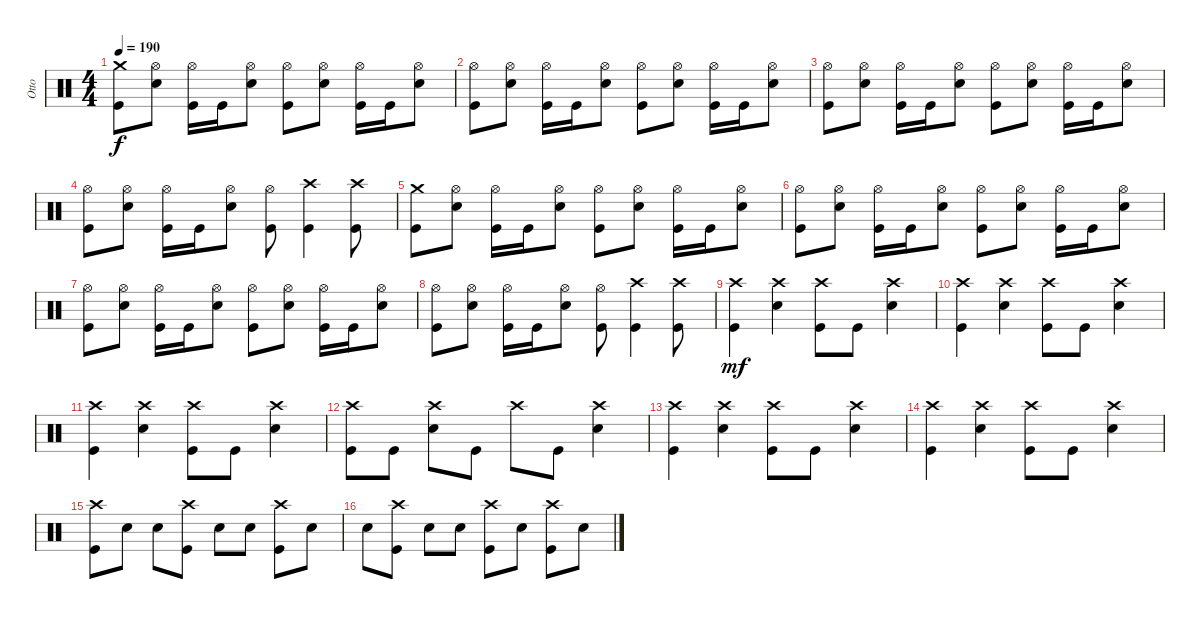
\track ("Otto" "Otto") {instrument percussion}
\staff {score}
\articulation defaults
\ts (4 4)
\tempo 190
\clef neutral
\ks c
("Crash medium (hit)" "Kick (hit)").8{dy f} ("Hi-Hat (open)" "Snare (hit) 2").8 ("Hi-Hat (open)" "Kick (hit)").16 "Kick (hit)".16 ("Hi-Hat (open)" "Snare (hit) 2").8 ("Hi-Hat (open)" "Kick (hit)").8 ("Hi-Hat (open)" "Snare (hit) 2").8 ("Hi-Hat (open)" "Kick (hit)").16 "Kick (hit)".16 ("Hi-Hat (open)" "Snare (hit) 2").8 |
("Hi-Hat (open)" "Kick (hit)").8 ("Hi-Hat (open)" "Snare (hit) 2").8 ("Hi-Hat (open)" "Kick (hit)").16 "Kick (hit)".16 ("Hi-Hat (open)" "Snare (hit) 2").8 ("Hi-Hat (open)" "Kick (hit)").8 ("Hi-Hat (open)" "Snare (hit) 2").8 ("Hi-Hat (open)" "Kick (hit)").16 "Kick (hit)".16 ("Hi-Hat (open)" "Snare (hit) 2").8 |
("Hi-Hat (open)" "Kick (hit)").8 ("Hi-Hat (open)" "Snare (hit) 2").8 ("Hi-Hat (open)" "Kick (hit)").16 "Kick (hit)".16 ("Hi-Hat (open)" "Snare (hit) 2").8 ("Hi-Hat (open)" "Kick (hit)").8 ("Hi-Hat (open)" "Snare (hit) 2").8 ("Hi-Hat (open)" "Kick (hit)").16 "Kick (hit)".16 ("Hi-Hat (open)" "Snare (hit) 2").8 |
("Hi-Hat (open)" "Kick (hit)").8 ("Hi-Hat (open)" "Snare (hit) 2").8 ("Hi-Hat (open)" "Kick (hit)").16 "Kick (hit)".16 ("Hi-Hat (open)" "Snare (hit) 2").8 ("Hi-Hat (open)" "Kick (hit)").8 ("Crash high (hit)" "Kick (hit)").4 ("Crash high (hit)" "Kick (hit)").8 |
("Crash medium (hit)" "Kick (hit)").8 ("Hi-Hat (open)" "Snare (hit) 2").8 ("Hi-Hat (open)" "Kick (hit)").16 "Kick (hit)".16 ("Hi-Hat (open)" "Snare (hit) 2").8 ("Hi-Hat (open)" "Kick (hit)").8 ("Hi-Hat (open)" "Snare (hit) 2").8 ("Hi-Hat (open)" "Kick (hit)").16 "Kick (hit)".16 ("Hi-Hat (open)" "Snare (hit) 2").8 |
("Hi-Hat (open)" "Kick (hit)").8 ("Hi-Hat (open)" "Snare (hit) 2").8 ("Hi-Hat (open)" "Kick (hit)").16 "Kick (hit)".16 ("Hi-Hat (open)" "Snare (hit) 2").8 ("Hi-Hat (open)" "Kick (hit)").8 ("Hi-Hat (open)" "Snare (hit) 2").8 ("Hi-Hat (open)" "Kick (hit)").16 "Kick (hit)".16 ("Hi-Hat (open)" "Snare (hit) 2").8 |
("Hi-Hat (open)" "Kick (hit)").8 ("Hi-Hat (open)" "Snare (hit) 2").8 ("Hi-Hat (open)" "Kick (hit)").16 "Kick (hit)".16 ("Hi-Hat (open)" "Snare (hit) 2").8 ("Hi-Hat (open)" "Kick (hit)").8 ("Hi-Hat (open)" "Snare (hit) 2").8 ("Hi-Hat (open)" "Kick (hit)").16 "Kick (hit)".16 ("Hi-Hat (open)" "Snare (hit) 2").8 |
("Hi-Hat (open)" "Kick (hit)").8 ("Hi-Hat (open)" "Snare (hit) 2").8 ("Hi-Hat (open)" "Kick (hit)").16 "Kick (hit)".16 ("Hi-Hat (open)" "Snare (hit) 2").8 ("Hi-Hat (open)" "Kick (hit)").8 ("Crash high (hit)" "Kick (hit)").4 ("Crash high (hit)" "Kick (hit)").8 |
("Kick (hit)" "Crash high (hit)").4{dy mf} ("Snare (hit) 2" "Crash high (hit)").4 ("Kick (hit)" "Crash high (hit)").8 "Kick (hit)".8 ("Snare (hit) 2" "Crash high (hit)").4 |
("Kick (hit)" "Crash high (hit)").4 ("Snare (hit) 2" "Crash high (hit)").4 ("Kick (hit)" "Crash high (hit)").8 "Kick (hit)".8 ("Snare (hit) 2" "Crash high (hit)").4 |
("Kick (hit)" "Crash high (hit)").4 ("Snare (hit) 2" "Crash high (hit)").4 ("Kick (hit)" "Crash high (hit)").8 "Kick (hit)".8 ("Snare (hit) 2" "Crash high (hit)").4 |
("Kick (hit)" "Crash high (hit)").8 "Kick (hit)".8 ("Snare (hit) 2" "Crash high (hit)").8 "Kick (hit)".8 "Crash high (hit)".8 "Kick (hit)".8 ("Snare (hit) 2" "Crash high (hit)").4 |
("Kick (hit)" "Crash high (hit)").4 ("Snare (hit) 2" "Crash high (hit)").4 ("Kick (hit)" "Crash high (hit)").8 "Kick (hit)".8 ("Snare (hit) 2" "Crash high (hit)").4 |
("Kick (hit)" "Crash high (hit)").4 ("Snare (hit) 2" "Crash high (hit)").4 ("Kick (hit)" "Crash high (hit)").8 "Kick (hit)".8 ("Snare (hit) 2" "Crash high (hit)").4 |
("Crash high (hit)" "Kick (hit)").8 "Snare (hit) 2".8 "Snare (hit) 2".8 ("Crash high (hit)" "Kick (hit)").8 "Snare (hit) 2".8 "Snare (hit) 2".8 ("Crash high (hit)" "Kick (hit)").8 "Snare (hit) 2".8 |
"Snare (hit) 2".8 ("Crash high (hit)" "Kick (hit)").8 "Snare (hit) 2".8 "Snare (hit) 2".8 ("Crash high (hit)" "Kick (hit)").8 "Snare (hit) 2".8 ("Crash high (hit)" "Kick (hit)").8 "Snare (hit) 2".8
